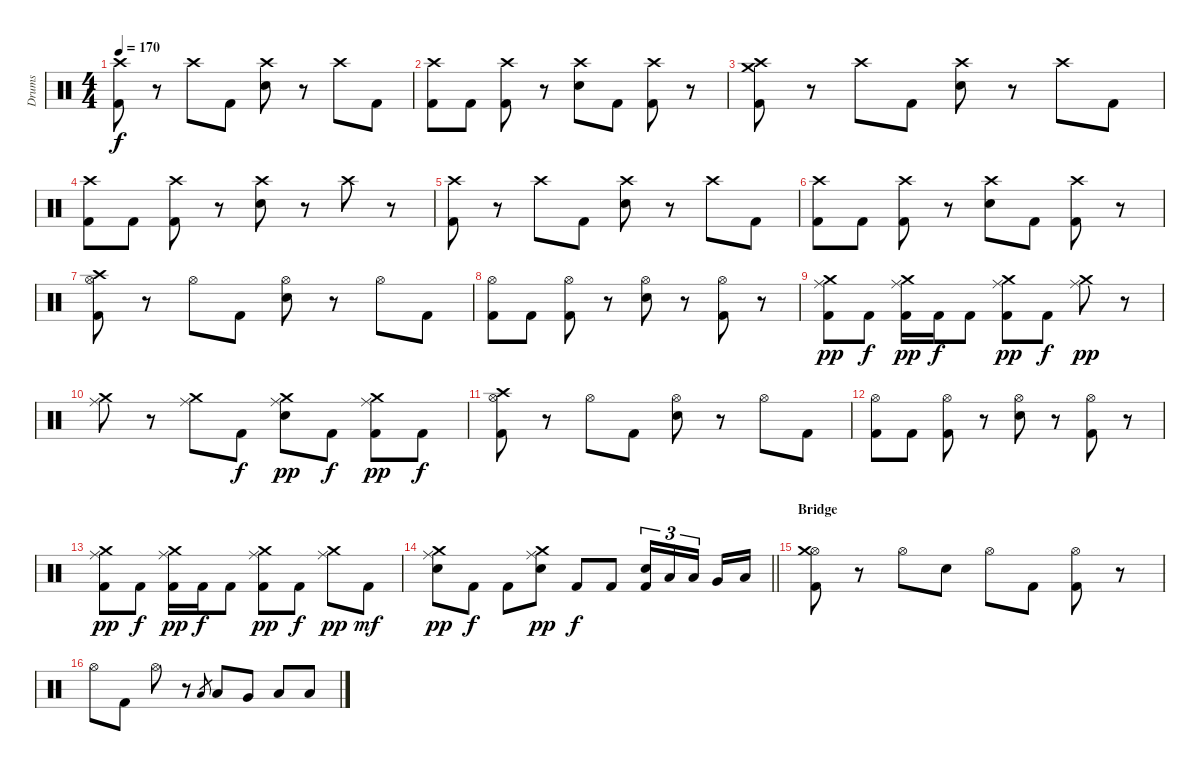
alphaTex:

\track ("Drums" "Drums") {instrument percussion}
\staff {score}
\articulation defaults
\ts (4 4)
\tempo 170
\clef neutral
\ks c
("Crash high (hit)" "Kick (hit) 2").8{dy f} r.8 "Crash high (hit)".8 "Kick (hit) 2".8 ("Crash high (hit)" "Electric Snare (hit)").8 r.8 "Crash high (hit)".8 "Kick (hit) 2".8 |
("Crash high (hit)" "Kick (hit) 2").8 "Kick (hit) 2".8 ("Crash high (hit)" "Kick (hit) 2").8 r.8 ("Crash high (hit)" "Electric Snare (hit)").8 "Kick (hit) 2".8 ("Crash high (hit)" "Kick (hit) 2").8 r.8 |
("Crash high (hit)" "Kick (hit) 2" "Crash medium (hit)").8 r.8 "Crash high (hit)".8 "Kick (hit) 2".8 ("Crash high (hit)" "Electric Snare (hit)").8 r.8 "Crash high (hit)".8 "Kick (hit) 2".8 |
("Crash high (hit)" "Kick (hit) 2").8 "Kick (hit) 2".8 ("Crash high (hit)" "Kick (hit) 2").8 r.8 ("Crash high (hit)" "Electric Snare (hit)").8 r.8 "Crash high (hit)".8 r.8 |
("Crash high (hit)" "Kick (hit) 2").8 r.8 "Crash high (hit)".8 "Kick (hit) 2".8 ("Crash high (hit)" "Electric Snare (hit)").8 r.8 "Crash high (hit)".8 "Kick (hit) 2".8 |
("Crash high (hit)" "Kick (hit) 2").8 "Kick (hit) 2".8 ("Crash high (hit)" "Kick (hit) 2").8 r.8 ("Crash high (hit)" "Electric Snare (hit)").8 "Kick (hit) 2".8 ("Crash high (hit)" "Kick (hit) 2").8 r.8 |
("Hi-Hat (open)" "Kick (hit) 2" "Crash high (hit)").8 r.8 "Hi-Hat (open)".8 "Kick (hit) 2".8 ("Hi-Hat (open)" "Electric Snare (hit)").8 r.8 "Hi-Hat (open)".8 "Kick (hit) 2".8 |
("Hi-Hat (open)" "Kick (hit) 2").8 "Kick (hit) 2".8 ("Hi-Hat (open)" "Kick (hit) 2").8 r.8 ("Hi-Hat (open)" "Electric Snare (hit)").8 r.8 ("Hi-Hat (open)" "Kick (hit) 2").8 r.8 |
("Ride (middle)" "Kick (hit) 2" "Crash medium (hit)").8{dy pp} "Kick (hit) 2".8{dy f} ("Ride (middle)" "Kick (hit) 2" "Crash medium (hit)").16{dy pp} "Kick (hit) 2".16{dy f} "Kick (hit) 2".8 ("Ride (middle)" "Kick (hit) 2" "Crash medium (hit)").8{dy pp} "Kick (hit) 2".8{dy f} ("Ride (middle)" "Crash medium (hit)").8{dy pp} r.8 |
("Ride (middle)" "Crash medium (hit)").8 r.8 ("Ride (middle)" "Crash medium (hit)").8 "Kick (hit) 2".8{dy f} ("Ride (middle)" "Electric Snare (hit)" "Crash medium (hit)").8{dy pp} "Kick (hit) 2".8{dy f} ("Ride (middle)" "Kick (hit) 2" "Crash medium (hit)").8{dy pp} "Kick (hit) 2".8{dy f} |
("Hi-Hat (open)" "Kick (hit) 2" "Crash high (hit)").8 r.8 "Hi-Hat (open)".8 "Kick (hit) 2".8 ("Hi-Hat (open)" "Electric Snare (hit)").8 r.8 "Hi-Hat (open)".8 "Kick (hit) 2".8 |
("Hi-Hat (open)" "Kick (hit) 2").8 "Kick (hit) 2".8 ("Hi-Hat (open)" "Kick (hit) 2").8 r.8 ("Hi-Hat (open)" "Electric Snare (hit)").8 r.8 ("Hi-Hat (open)" "Kick (hit) 2").8 r.8 |
("Ride (middle)" "Kick (hit) 2" "Crash medium (hit)").8{dy pp} "Kick (hit) 2".8{dy f} ("Ride (middle)" "Kick (hit) 2" "Crash medium (hit)").16{dy pp} "Kick (hit) 2".16{dy f} "Kick (hit) 2".8 ("Ride (middle)" "Kick (hit) 2" "Crash medium (hit)").8{dy pp} "Kick (hit) 2".8{dy f} ("Ride (middle)" "Crash medium (hit)").8{dy pp} "Kick (hit) 2".8{dy mf} |
\barLineRight lightlight
("Ride (middle)" "Electric Snare (hit)" "Crash medium (hit)").8{dy pp} "Kick (hit) 2".8{dy f} "Kick (hit) 2".8 ("Ride (middle)" "Electric Snare (hit)" "Crash medium (hit)").8{dy pp} "Kick (hit) 2".8{dy f} "Kick (hit) 2".8 ("Electric Snare (hit)" "Kick (hit) 2").16{tu (3 2)} "Low Tom (hit)".16{tu (3 2)} "Low Tom (hit)".16{tu (3 2) beam splitsecondary} "Very Low Tom (hit)".16 "Low Floor Tom (hit)".16 |
\section ("" "Bridge")
("Hi-Hat (open)" "Kick (hit) 2" "Crash medium (hit)").8 r.8 "Hi-Hat (open)".8 "Electric Snare (hit)".8 "Hi-Hat (open)".8 "Kick (hit) 2".8 ("Hi-Hat (open)" "Kick (hit) 2").8 r.8 |
"Hi-Hat (open)".8 "Kick (hit) 2".8 "Hi-Hat (open)".8 r.8 "Low Tom (hit)".8{gr} "Low Tom (hit)".8 "Very Low Tom (hit)".8 "Low Floor Tom (hit)".8 "Low Floor Tom (hit)".8
